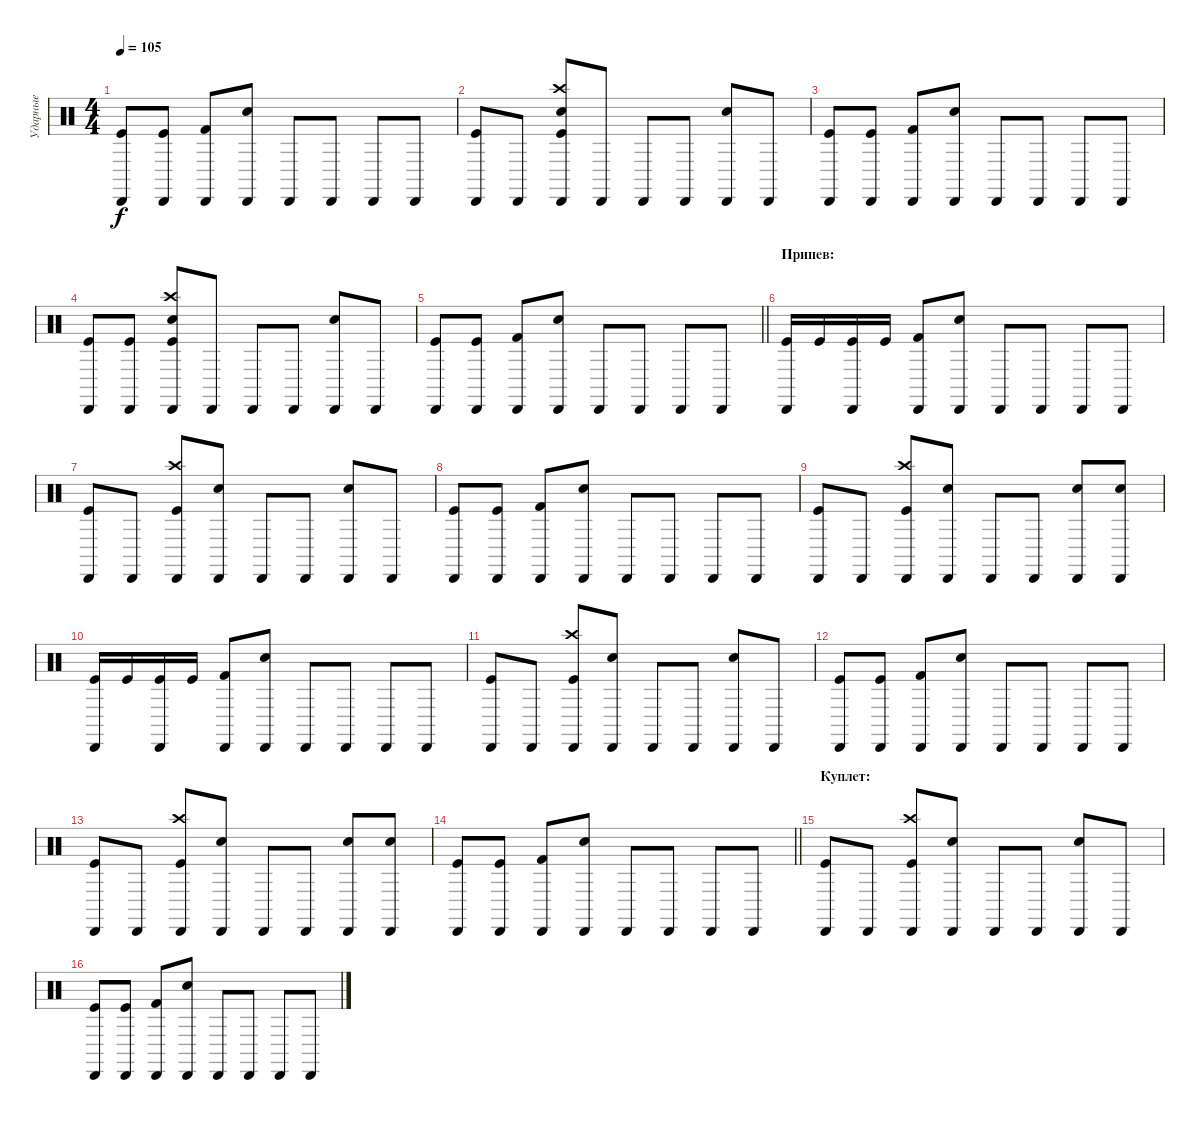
\track ("Ударные" "Ударные") {instrument percussion}
\staff {score}
\articulation defaults
\ts (4 4)
\tempo 105
\clef neutral
\ks c
("Cabasa (hit)" "Kick (hit)").8{dy f} ("Cabasa (hit)" "Kick (hit)").8 ("Cabasa (hit)" "Kick (hit) 2").8 ("Cabasa (hit)" "Electric Snare (hit)").8 "Cabasa (hit)".8 "Cabasa (hit)".8 "Cabasa (hit)".8 "Cabasa (hit)".8 |
("Cabasa (hit)" "Kick (hit)").8 "Cabasa (hit)".8 ("Cabasa (hit)" "Crash high (hit)" "Electric Snare (hit)" "Kick (hit)").8 "Cabasa (hit)".8 "Cabasa (hit)".8 "Cabasa (hit)".8 ("Cabasa (hit)" "Snare (hit) 2").8 "Cabasa (hit)".8 |
("Cabasa (hit)" "Kick (hit)").8 ("Cabasa (hit)" "Kick (hit)").8 ("Cabasa (hit)" "Kick (hit) 2").8 ("Cabasa (hit)" "Electric Snare (hit)").8 "Cabasa (hit)".8 "Cabasa (hit)".8 "Cabasa (hit)".8 "Cabasa (hit)".8 |
("Cabasa (hit)" "Kick (hit)").8 ("Cabasa (hit)" "Kick (hit)").8 ("Cabasa (hit)" "Crash high (hit)" "Electric Snare (hit)" "Kick (hit)").8 "Cabasa (hit)".8 "Cabasa (hit)".8 "Cabasa (hit)".8 ("Cabasa (hit)" "Snare (hit) 2").8 "Cabasa (hit)".8 |
\barLineRight lightlight
("Cabasa (hit)" "Kick (hit)").8 ("Cabasa (hit)" "Kick (hit)").8 ("Cabasa (hit)" "Kick (hit) 2").8 ("Cabasa (hit)" "Electric Snare (hit)").8 "Cabasa (hit)".8 "Cabasa (hit)".8 "Cabasa (hit)".8 "Cabasa (hit)".8 |
\section ("" "Припев:")
("Cabasa (hit)" "Kick (hit)").16 "Kick (hit)".16 ("Cabasa (hit)" "Kick (hit)").16 "Kick (hit)".16 ("Cabasa (hit)" "Kick (hit) 2").8 ("Cabasa (hit)" "Electric Snare (hit)").8 "Cabasa (hit)".8 "Cabasa (hit)".8 "Cabasa (hit)".8 "Cabasa (hit)".8 |
("Cabasa (hit)" "Kick (hit)").8 "Cabasa (hit)".8 ("Cabasa (hit)" "Crash high (hit)" "Kick (hit)").8 ("Cabasa (hit)" "Electric Snare (hit)").8 "Cabasa (hit)".8 "Cabasa (hit)".8 ("Cabasa (hit)" "Snare (hit) 2").8 "Cabasa (hit)".8 |
("Cabasa (hit)" "Kick (hit)").8 ("Cabasa (hit)" "Kick (hit)").8 ("Cabasa (hit)" "Kick (hit) 2").8 ("Cabasa (hit)" "Electric Snare (hit)").8 "Cabasa (hit)".8 "Cabasa (hit)".8 "Cabasa (hit)".8 "Cabasa (hit)".8 |
("Cabasa (hit)" "Kick (hit)").8 "Cabasa (hit)".8 ("Cabasa (hit)" "Crash high (hit)" "Kick (hit)").8 ("Cabasa (hit)" "Electric Snare (hit)").8 "Cabasa (hit)".8 "Cabasa (hit)".8 ("Cabasa (hit)" "Snare (hit) 2").8 ("Cabasa (hit)" "Electric Snare (hit)").8 |
("Cabasa (hit)" "Kick (hit)").16 "Kick (hit)".16 ("Cabasa (hit)" "Kick (hit)").16 "Kick (hit)".16 ("Cabasa (hit)" "Kick (hit) 2").8 ("Cabasa (hit)" "Electric Snare (hit)").8 "Cabasa (hit)".8 "Cabasa (hit)".8 "Cabasa (hit)".8 "Cabasa (hit)".8 |
("Cabasa (hit)" "Kick (hit)").8 "Cabasa (hit)".8 ("Cabasa (hit)" "Crash high (hit)" "Kick (hit)").8 ("Cabasa (hit)" "Electric Snare (hit)").8 "Cabasa (hit)".8 "Cabasa (hit)".8 ("Cabasa (hit)" "Snare (hit) 2").8 "Cabasa (hit)".8 |
("Cabasa (hit)" "Kick (hit)").8 ("Cabasa (hit)" "Kick (hit)").8 ("Cabasa (hit)" "Kick (hit) 2").8 ("Cabasa (hit)" "Electric Snare (hit)").8 "Cabasa (hit)".8 "Cabasa (hit)".8 "Cabasa (hit)".8 "Cabasa (hit)".8 |
("Cabasa (hit)" "Kick (hit)").8 "Cabasa (hit)".8 ("Cabasa (hit)" "Crash high (hit)" "Kick (hit)").8 ("Cabasa (hit)" "Electric Snare (hit)").8 "Cabasa (hit)".8 "Cabasa (hit)".8 ("Cabasa (hit)" "Snare (hit) 2").8 ("Cabasa (hit)" "Electric Snare (hit)").8 |
\barLineRight lightlight
("Cabasa (hit)" "Kick (hit)").8 ("Cabasa (hit)" "Kick (hit)").8 ("Cabasa (hit)" "Kick (hit) 2").8 ("Cabasa (hit)" "Electric Snare (hit)").8 "Cabasa (hit)".8 "Cabasa (hit)".8 "Cabasa (hit)".8 "Cabasa (hit)".8 |
\section ("" "Куплет:")
("Cabasa (hit)" "Kick (hit)").8 "Cabasa (hit)".8 ("Cabasa (hit)" "Crash high (hit)" "Kick (hit)").8 ("Cabasa (hit)" "Electric Snare (hit)").8 "Cabasa (hit)".8 "Cabasa (hit)".8 ("Cabasa (hit)" "Snare (hit) 2").8 "Cabasa (hit)".8 |
("Cabasa (hit)" "Kick (hit)").8 ("Cabasa (hit)" "Kick (hit)").8 ("Cabasa (hit)" "Kick (hit) 2").8 ("Cabasa (hit)" "Electric Snare (hit)").8 "Cabasa (hit)".8 "Cabasa (hit)".8 "Cabasa (hit)".8 "Cabasa (hit)".8
